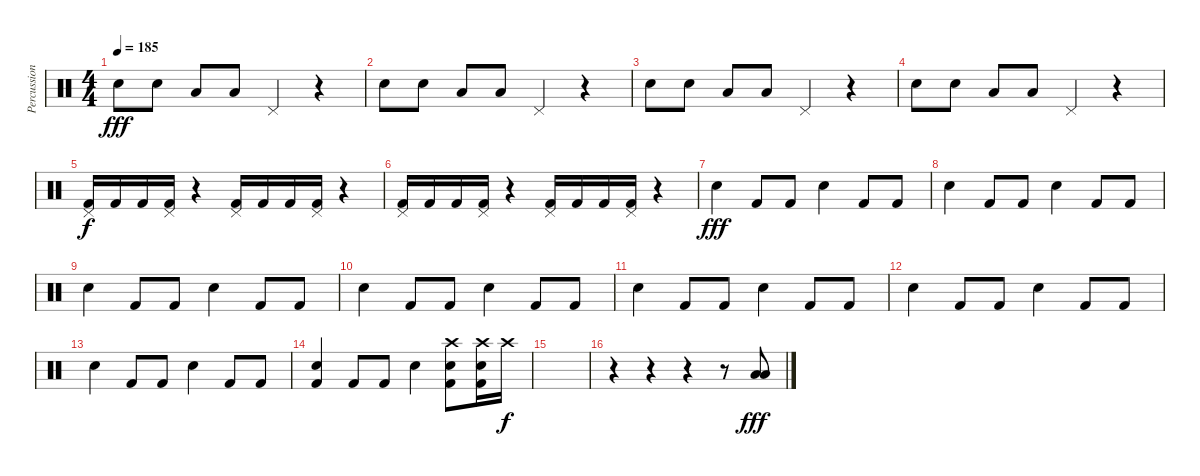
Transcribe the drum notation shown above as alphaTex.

\track ("Percussions" "Percussion") {instrument percussion}
\staff {score}
\articulation defaults
\ts (4 4)
\tempo 185
\clef neutral
\ks c "Electric Snare (hit)".8{dy fff} "Electric Snare (hit)".8 "Low Tom (hit)".8 "Low Tom (hit)".8 "Pedal Hi-Hat (hit)".4
r.4 |
"Electric Snare (hit)".8 "Electric Snare (hit)".8 "Low Tom (hit)".8 "Low Tom (hit)".8 "Pedal Hi-Hat (hit)".4 r.4 |
"Electric Snare (hit)".8 "Electric Snare (hit)".8 "Low Tom (hit)".8 "Low Tom (hit)".8 "Pedal Hi-Hat (hit)".4 r.4 |
"Electric Snare (hit)".8 "Electric Snare (hit)".8 "Low Tom (hit)".8 "Low Tom (hit)".8 "Pedal Hi-Hat (hit)".4 r.4 |
("Pedal Hi-Hat (hit)" "Kick (hit) 2").16{dy f} "Kick (hit) 2".16 "Kick (hit) 2".16 ("Pedal Hi-Hat (hit)" "Kick (hit) 2").16 r.4 ("Pedal Hi-Hat (hit)" "Kick (hit) 2").16 "Kick (hit) 2".16 "Kick (hit) 2".16 ("Pedal Hi-Hat (hit)" "Kick (hit) 2").16 r.4 |
("Pedal Hi-Hat (hit)" "Kick (hit) 2").16 "Kick (hit) 2".16 "Kick (hit) 2".16 ("Pedal Hi-Hat (hit)" "Kick (hit) 2").16 r.4 ("Pedal Hi-Hat (hit)" "Kick (hit) 2").16 "Kick (hit) 2".16 "Kick (hit) 2".16 ("Pedal Hi-Hat (hit)" "Kick (hit) 2").16 r.4 |
"Electric Snare (hit)".4{dy fff} "Kick (hit) 2".8 "Kick (hit) 2".8 "Electric Snare (hit)".4 "Kick (hit) 2".8 "Kick (hit) 2".8 |
"Electric Snare (hit)".4 "Kick (hit) 2".8 "Kick (hit) 2".8 "Electric Snare (hit)".4 "Kick (hit) 2".8 "Kick (hit) 2".8 |
"Electric Snare (hit)".4 "Kick (hit) 2".8 "Kick (hit) 2".8 "Electric Snare (hit)".4 "Kick (hit) 2".8 "Kick (hit) 2".8 |
"Electric Snare (hit)".4 "Kick (hit) 2".8 "Kick (hit) 2".8 "Electric Snare (hit)".4 "Kick (hit) 2".8 "Kick (hit) 2".8 |
"Electric Snare (hit)".4 "Kick (hit) 2".8 "Kick (hit) 2".8 "Electric Snare (hit)".4 "Kick (hit) 2".8 "Kick (hit) 2".8 |
"Electric Snare (hit)".4 "Kick (hit) 2".8 "Kick (hit) 2".8 "Electric Snare (hit)".4 "Kick (hit) 2".8 "Kick (hit) 2".8 |
"Electric Snare (hit)".4 "Kick (hit) 2".8 "Kick (hit) 2".8 "Electric Snare (hit)".4 "Kick (hit) 2".8 "Kick (hit) 2".8 |
("Electric Snare (hit)" "Kick (hit) 2").4 "Kick (hit) 2".8 "Kick (hit) 2".8 "Electric Snare (hit)".4 ("Crash high (hit)" "Electric Snare (hit)" "Kick (hit) 2").8 ("Crash high (hit)" "Electric Snare (hit)" "Kick (hit) 2").16 "Crash high (hit)".16{dy f} |
|
r.4 r.4 r.4 r.8 ("Low Floor Tom (hit)" "Low Tom (hit)").8{dy fff}
